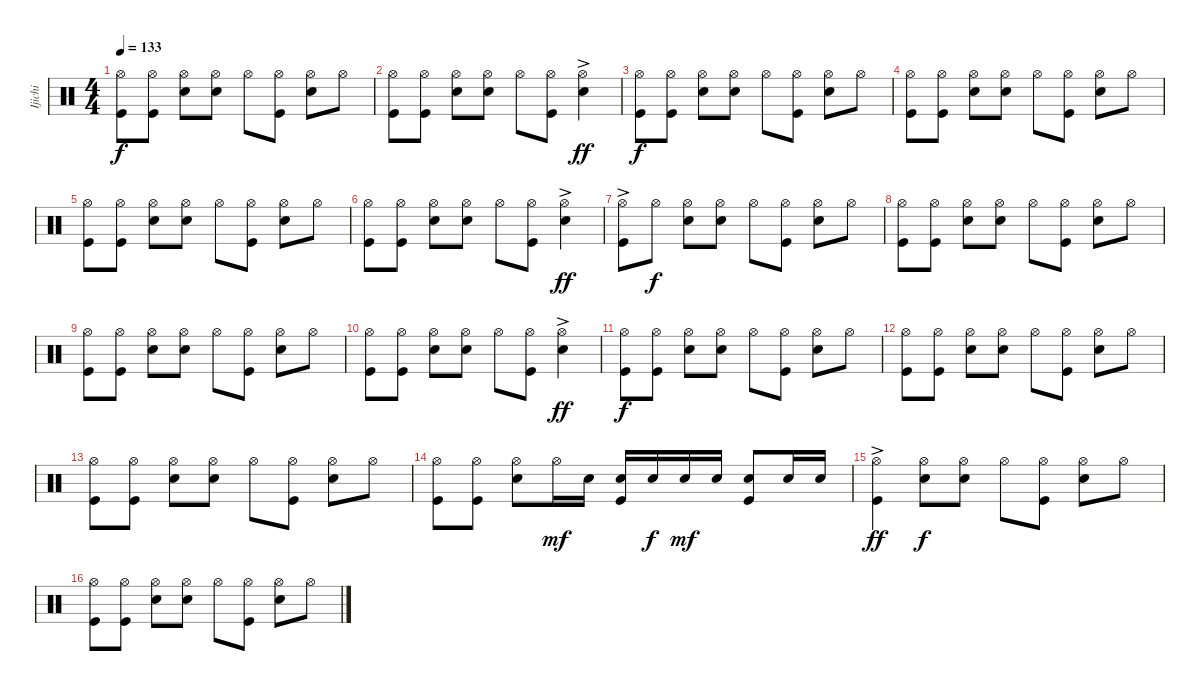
\track ("Ijichi" "Ijichi") {instrument percussion}
\staff {score}
\articulation defaults
\ts (4 4)
\tempo 133
\clef neutral
\ks c
("Hi-Hat (open)" "Kick (hit)").8{dy f} ("Hi-Hat (open)" "Kick (hit)").8 ("Hi-Hat (open)" "Snare (hit) 2").8 ("Hi-Hat (open)" "Snare (hit) 2").8 "Hi-Hat (open)".8 ("Hi-Hat (open)" "Kick (hit)").8 ("Hi-Hat (open)" "Snare (hit) 2").8 "Hi-Hat (open)".8 |
("Hi-Hat (open)" "Kick (hit)").8 ("Hi-Hat (open)" "Kick (hit)").8 ("Hi-Hat (open)" "Snare (hit) 2").8 ("Hi-Hat (open)" "Snare (hit) 2").8 "Hi-Hat (open)".8 ("Hi-Hat (open)" "Kick (hit)").8 ("Hi-Hat (open)"{ac} "Snare (hit) 2").4{dy ff} |
("Hi-Hat (open)" "Kick (hit)").8{dy f} ("Hi-Hat (open)" "Kick (hit)").8 ("Hi-Hat (open)" "Snare (hit) 2").8 ("Hi-Hat (open)" "Snare (hit) 2").8 "Hi-Hat (open)".8 ("Hi-Hat (open)" "Kick (hit)").8 ("Hi-Hat (open)" "Snare (hit) 2").8 "Hi-Hat (open)".8 |
("Hi-Hat (open)" "Kick (hit)").8 ("Hi-Hat (open)" "Kick (hit)").8 ("Hi-Hat (open)" "Snare (hit) 2").8 ("Hi-Hat (open)" "Snare (hit) 2").8 "Hi-Hat (open)".8 ("Hi-Hat (open)" "Kick (hit)").8 ("Hi-Hat (open)" "Snare (hit) 2").8 "Hi-Hat (open)".8 |
("Hi-Hat (open)" "Kick (hit)").8 ("Hi-Hat (open)" "Kick (hit)").8 ("Hi-Hat (open)" "Snare (hit) 2").8 ("Hi-Hat (open)" "Snare (hit) 2").8 "Hi-Hat (open)".8 ("Hi-Hat (open)" "Kick (hit)").8 ("Hi-Hat (open)" "Snare (hit) 2").8 "Hi-Hat (open)".8 |
("Hi-Hat (open)" "Kick (hit)").8 ("Hi-Hat (open)" "Kick (hit)").8 ("Hi-Hat (open)" "Snare (hit) 2").8 ("Hi-Hat (open)" "Snare (hit) 2").8 "Hi-Hat (open)".8 ("Hi-Hat (open)" "Kick (hit)").8 ("Hi-Hat (open)"{ac} "Snare (hit) 2").4{dy ff} |
("Hi-Hat (open)"{ac} "Kick (hit)").8 "Hi-Hat (open)".8{dy f} ("Hi-Hat (open)" "Snare (hit) 2").8 ("Hi-Hat (open)" "Snare (hit) 2").8 "Hi-Hat (open)".8 ("Hi-Hat (open)" "Kick (hit)").8 ("Hi-Hat (open)" "Snare (hit) 2").8 "Hi-Hat (open)".8 |
("Hi-Hat (open)" "Kick (hit)").8 ("Hi-Hat (open)" "Kick (hit)").8 ("Hi-Hat (open)" "Snare (hit) 2").8 ("Hi-Hat (open)" "Snare (hit) 2").8 "Hi-Hat (open)".8 ("Hi-Hat (open)" "Kick (hit)").8 ("Hi-Hat (open)" "Snare (hit) 2").8 "Hi-Hat (open)".8 |
("Hi-Hat (open)" "Kick (hit)").8 ("Hi-Hat (open)" "Kick (hit)").8 ("Hi-Hat (open)" "Snare (hit) 2").8 ("Hi-Hat (open)" "Snare (hit) 2").8 "Hi-Hat (open)".8 ("Hi-Hat (open)" "Kick (hit)").8 ("Hi-Hat (open)" "Snare (hit) 2").8 "Hi-Hat (open)".8 |
("Hi-Hat (open)" "Kick (hit)").8 ("Hi-Hat (open)" "Kick (hit)").8 ("Hi-Hat (open)" "Snare (hit) 2").8 ("Hi-Hat (open)" "Snare (hit) 2").8 "Hi-Hat (open)".8 ("Hi-Hat (open)" "Kick (hit)").8 ("Hi-Hat (open)"{ac} "Snare (hit) 2").4{dy ff} |
("Hi-Hat (open)" "Kick (hit)").8{dy f} ("Hi-Hat (open)" "Kick (hit)").8 ("Hi-Hat (open)" "Snare (hit) 2").8 ("Hi-Hat (open)" "Snare (hit) 2").8 "Hi-Hat (open)".8 ("Hi-Hat (open)" "Kick (hit)").8 ("Hi-Hat (open)" "Snare (hit) 2").8 "Hi-Hat (open)".8 |
("Hi-Hat (open)" "Kick (hit)").8 ("Hi-Hat (open)" "Kick (hit)").8 ("Hi-Hat (open)" "Snare (hit) 2").8 ("Hi-Hat (open)" "Snare (hit) 2").8 "Hi-Hat (open)".8 ("Hi-Hat (open)" "Kick (hit)").8 ("Hi-Hat (open)" "Snare (hit) 2").8 "Hi-Hat (open)".8 |
("Hi-Hat (open)" "Kick (hit)").8 ("Hi-Hat (open)" "Kick (hit)").8 ("Hi-Hat (open)" "Snare (hit) 2").8 ("Hi-Hat (open)" "Snare (hit) 2").8 "Hi-Hat (open)".8 ("Hi-Hat (open)" "Kick (hit)").8 ("Hi-Hat (open)" "Snare (hit) 2").8 "Hi-Hat (open)".8 |
("Hi-Hat (open)" "Kick (hit)").8 ("Hi-Hat (open)" "Kick (hit)").8 ("Hi-Hat (open)" "Snare (hit) 2").8 "Hi-Hat (open)".16{dy mf} "Snare (hit) 2".16 ("Snare (hit) 2" "Kick (hit)").16 "Snare (hit) 2".16{dy f} "Snare (hit) 2".16{dy mf} "Snare (hit) 2".16 ("Snare (hit) 2" "Kick (hit)").8 "Snare (hit) 2".16 "Snare (hit) 2".16 |
("Hi-Hat (open)"{ac} "Kick (hit)").4{dy ff} ("Hi-Hat (open)" "Snare (hit) 2").8{dy f} ("Hi-Hat (open)" "Snare (hit) 2").8 "Hi-Hat (open)".8 ("Hi-Hat (open)" "Kick (hit)").8 ("Hi-Hat (open)" "Snare (hit) 2").8 "Hi-Hat (open)".8 |
("Hi-Hat (open)" "Kick (hit)").8 ("Hi-Hat (open)" "Kick (hit)").8 ("Hi-Hat (open)" "Snare (hit) 2").8 ("Hi-Hat (open)" "Snare (hit) 2").8 "Hi-Hat (open)".8 ("Hi-Hat (open)" "Kick (hit)").8 ("Hi-Hat (open)" "Snare (hit) 2").8 "Hi-Hat (open)".8
